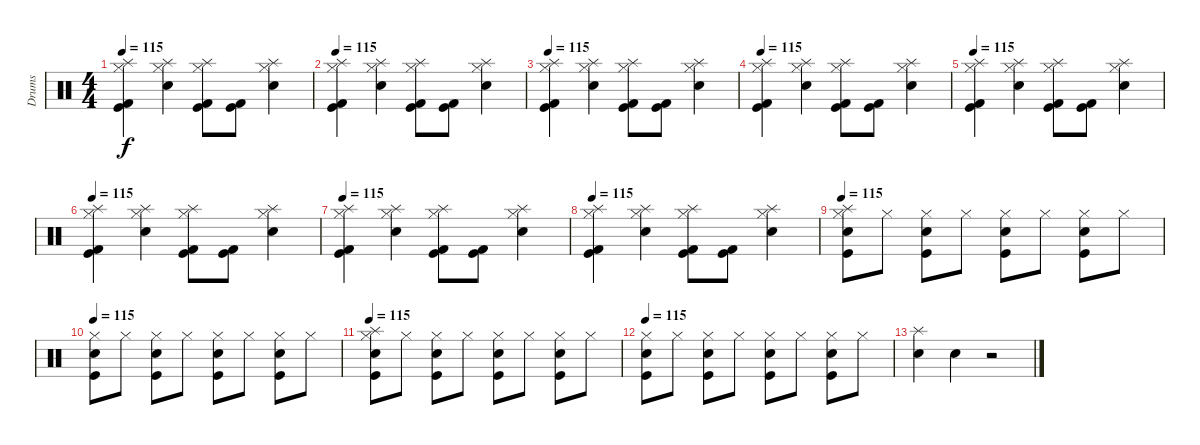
\track ("Drums" "Drums") {instrument percussion}
\staff {score}
\articulation defaults
\ts (4 4)
\tempo 115
\clef neutral
\ks c
("Splash (hit)" "Kick (hit) 2" "Kick (hit)" "Hi-Hat (closed)").4{dy f} ("Splash (hit)" "Hi-Hat (closed)" "Electric Snare (hit)").4 ("Splash (hit)" "Kick (hit) 2" "Kick (hit)" "Hi-Hat (closed)").8 ("Kick (hit) 2" "Kick (hit)").8 ("Splash (hit)" "Electric Snare (hit)" "Hi-Hat (closed)").4 |
\tempo 115
("Splash (hit)" "Kick (hit) 2" "Kick (hit)" "Hi-Hat (closed)").4 ("Splash (hit)" "Hi-Hat (closed)" "Electric Snare (hit)").4 ("Splash (hit)" "Kick (hit) 2" "Kick (hit)" "Hi-Hat (closed)").8 ("Kick (hit) 2" "Kick (hit)").8 ("Splash (hit)" "Electric Snare (hit)" "Hi-Hat (closed)").4 |
\tempo 115
("Splash (hit)" "Kick (hit) 2" "Kick (hit)" "Hi-Hat (closed)").4 ("Splash (hit)" "Hi-Hat (closed)" "Electric Snare (hit)").4 ("Splash (hit)" "Kick (hit) 2" "Kick (hit)" "Hi-Hat (closed)").8 ("Kick (hit) 2" "Kick (hit)").8 ("Splash (hit)" "Electric Snare (hit)" "Hi-Hat (closed)").4 |
\tempo 115
("Splash (hit)" "Kick (hit) 2" "Kick (hit)" "Hi-Hat (closed)").4 ("Splash (hit)" "Hi-Hat (closed)" "Electric Snare (hit)").4 ("Splash (hit)" "Kick (hit) 2" "Kick (hit)" "Hi-Hat (closed)").8 ("Kick (hit) 2" "Kick (hit)").8 ("Splash (hit)" "Electric Snare (hit)" "Hi-Hat (closed)").4 |
\tempo 115
("Splash (hit)" "Kick (hit) 2" "Kick (hit)" "Hi-Hat (closed)").4 ("Splash (hit)" "Hi-Hat (closed)" "Electric Snare (hit)").4 ("Splash (hit)" "Kick (hit) 2" "Kick (hit)" "Hi-Hat (closed)").8 ("Kick (hit) 2" "Kick (hit)").8 ("Splash (hit)" "Electric Snare (hit)" "Hi-Hat (closed)").4 |
\tempo 115
("Splash (hit)" "Kick (hit) 2" "Kick (hit)" "Hi-Hat (closed)").4 ("Splash (hit)" "Hi-Hat (closed)" "Electric Snare (hit)").4 ("Splash (hit)" "Kick (hit) 2" "Kick (hit)" "Hi-Hat (closed)").8 ("Kick (hit) 2" "Kick (hit)").8 ("Splash (hit)" "Electric Snare (hit)" "Hi-Hat (closed)").4 |
\tempo 115
("Splash (hit)" "Kick (hit) 2" "Kick (hit)" "Hi-Hat (closed)").4 ("Splash (hit)" "Hi-Hat (closed)" "Electric Snare (hit)").4 ("Splash (hit)" "Kick (hit) 2" "Kick (hit)" "Hi-Hat (closed)").8 ("Kick (hit) 2" "Kick (hit)").8 ("Splash (hit)" "Electric Snare (hit)" "Hi-Hat (closed)").4 |
\tempo 115
("Splash (hit)" "Kick (hit) 2" "Kick (hit)" "Hi-Hat (closed)").4 ("Splash (hit)" "Hi-Hat (closed)" "Electric Snare (hit)").4 ("Splash (hit)" "Kick (hit) 2" "Kick (hit)" "Hi-Hat (closed)").8 ("Kick (hit) 2" "Kick (hit)").8 ("Splash (hit)" "Electric Snare (hit)" "Hi-Hat (closed)").4 |
\tempo 115
("Splash (hit)" "Kick (hit)" "Snare (hit) 2" "Hi-Hat (closed)").8 "Hi-Hat (closed)".8 ("Snare (hit) 2" "Kick (hit)" "Hi-Hat (closed)").8 "Hi-Hat (closed)".8 ("Hi-Hat (closed)" "Kick (hit)" "Snare (hit) 2").8 "Hi-Hat (closed)".8 ("Kick (hit)" "Snare (hit) 2" "Hi-Hat (closed)").8 "Hi-Hat (closed)".8 |
\tempo 115
("Snare (hit) 2" "Kick (hit)" "Hi-Hat (closed)").8 "Hi-Hat (closed)".8 ("Hi-Hat (closed)" "Kick (hit)" "Snare (hit) 2").8 "Hi-Hat (closed)".8 ("Kick (hit)" "Snare (hit) 2" "Hi-Hat (closed)").8 "Hi-Hat (closed)".8 ("Snare (hit) 2" "Kick (hit)" "Hi-Hat (closed)").8 "Hi-Hat (closed)".8 |
\tempo 115
("Splash (hit)" "Kick (hit)" "Snare (hit) 2" "Hi-Hat (closed)").8 "Hi-Hat (closed)".8 ("Hi-Hat (closed)" "Kick (hit)" "Snare (hit) 2").8 "Hi-Hat (closed)".8 ("Hi-Hat (closed)" "Kick (hit)" "Snare (hit) 2").8 "Hi-Hat (closed)".8 ("Hi-Hat (closed)" "Kick (hit)" "Snare (hit) 2").8 "Hi-Hat (closed)".8 |
\tempo 115
("Hi-Hat (closed)" "Kick (hit)" "Snare (hit) 2").8 "Hi-Hat (closed)".8 ("Hi-Hat (closed)" "Kick (hit)" "Snare (hit) 2").8 "Hi-Hat (closed)".8 ("Hi-Hat (closed)" "Kick (hit)" "Snare (hit) 2").8 "Hi-Hat (closed)".8 ("Hi-Hat (closed)" "Kick (hit)" "Snare (hit) 2").8 "Hi-Hat (closed)".8 |
("Snare (hit) 2" "Splash (hit)").4 "Snare (hit) 2".4 r.2
